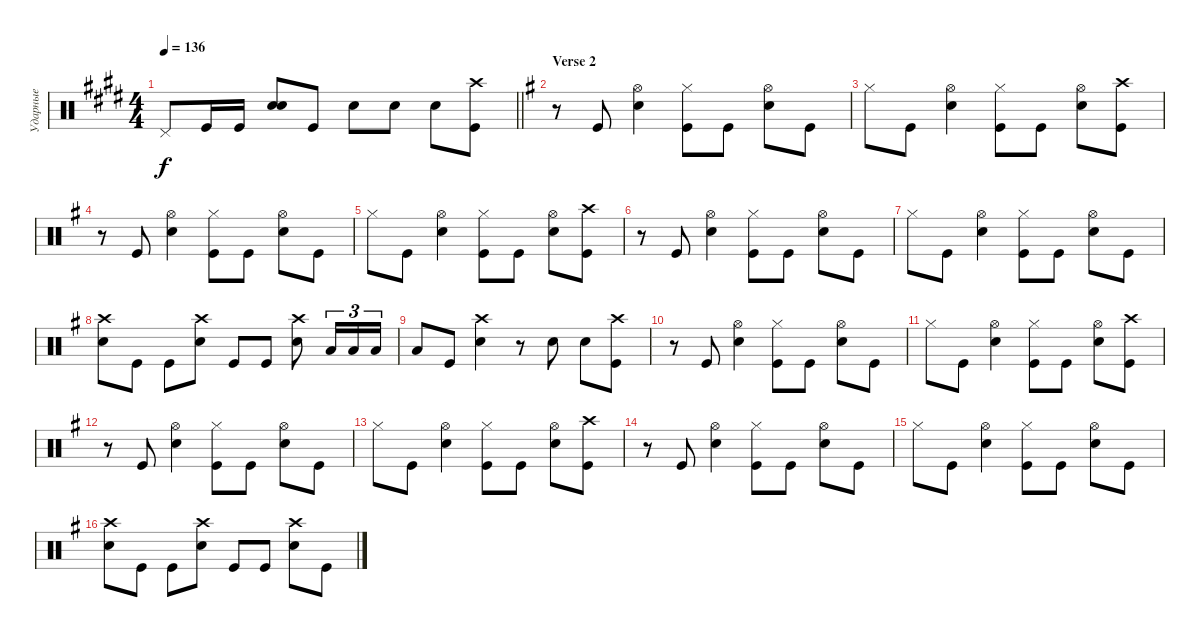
\track ("Ударные" "Ударные") {instrument percussion}
\staff {score}
\articulation defaults
\ts (4 4)
\tempo 136
\clef neutral
\barLineRight lightlight
\ks c#minor "Pedal Hi-Hat (hit)".8{dy f} "Kick (hit)".16 "Kick (hit)".16
("Snare (hit) 2" "Snare (hit) 2").8{bd 240} "Kick (hit)".8 "Snare (hit) 2".8{bd 240} "Snare (hit) 2".8 "Snare (hit) 2".8 ("Kick (hit)" "Crash high (hit)").8 |
\section ("" "Verse 2")
\ks eminor
r.8 "Kick (hit)".8 ("Snare (hit) 2" "Hi-Hat (open)").4 ("Kick (hit)" "Hi-Hat (closed)").8 "Kick (hit)".8 ("Snare (hit) 2" "Hi-Hat (open)").8 "Kick (hit)".8 |
"Hi-Hat (closed)".8 "Kick (hit)".8 ("Snare (hit) 2" "Hi-Hat (open)").4 ("Kick (hit)" "Hi-Hat (closed)").8 "Kick (hit)".8 ("Snare (hit) 2" "Hi-Hat (open)").8 ("Kick (hit)" "Crash high (hit)").8 |
r.8 "Kick (hit)".8 ("Snare (hit) 2" "Hi-Hat (open)").4 ("Kick (hit)" "Hi-Hat (closed)").8 "Kick (hit)".8 ("Snare (hit) 2" "Hi-Hat (open)").8 "Kick (hit)".8 |
"Hi-Hat (closed)".8 "Kick (hit)".8 ("Snare (hit) 2" "Hi-Hat (open)").4 ("Kick (hit)" "Hi-Hat (closed)").8 "Kick (hit)".8 ("Snare (hit) 2" "Hi-Hat (open)").8 ("Kick (hit)" "Crash high (hit)").8 |
r.8 "Kick (hit)".8 ("Snare (hit) 2" "Hi-Hat (open)").4 ("Kick (hit)" "Hi-Hat (closed)").8 "Kick (hit)".8 ("Snare (hit) 2" "Hi-Hat (open)").8 "Kick (hit)".8 |
"Hi-Hat (closed)".8 "Kick (hit)".8 ("Snare (hit) 2" "Hi-Hat (open)").4 ("Kick (hit)" "Hi-Hat (closed)").8 "Kick (hit)".8 ("Snare (hit) 2" "Hi-Hat (open)").8 "Kick (hit)".8 |
("Snare (hit) 2" "Crash high (hit)").8 "Kick (hit)".8 "Kick (hit)".8 ("Snare (hit) 2" "Crash high (hit)").8 "Kick (hit)".8 "Kick (hit)".8 ("Snare (hit) 2" "Crash high (hit)").8 "Low Tom (hit)".16{tu (3 2)} "Low Tom (hit)".16{tu (3 2)} "Low Tom (hit)".16{tu (3 2)} |
"Low Tom (hit)".8 "Kick (hit)".8 ("Snare (hit) 2" "Crash high (hit)").4 r.8 "Snare (hit) 2".8 "Snare (hit) 2".8 ("Kick (hit)" "Crash high (hit)").8 |
r.8 "Kick (hit)".8 ("Snare (hit) 2" "Hi-Hat (open)").4 ("Kick (hit)" "Hi-Hat (closed)").8 "Kick (hit)".8 ("Snare (hit) 2" "Hi-Hat (open)").8 "Kick (hit)".8 |
"Hi-Hat (closed)".8 "Kick (hit)".8 ("Snare (hit) 2" "Hi-Hat (open)").4 ("Kick (hit)" "Hi-Hat (closed)").8 "Kick (hit)".8 ("Snare (hit) 2" "Hi-Hat (open)").8 ("Kick (hit)" "Crash high (hit)").8 |
r.8 "Kick (hit)".8 ("Snare (hit) 2" "Hi-Hat (open)").4 ("Kick (hit)" "Hi-Hat (closed)").8 "Kick (hit)".8 ("Snare (hit) 2" "Hi-Hat (open)").8 "Kick (hit)".8 |
"Hi-Hat (closed)".8 "Kick (hit)".8 ("Snare (hit) 2" "Hi-Hat (open)").4 ("Kick (hit)" "Hi-Hat (closed)").8 "Kick (hit)".8 ("Snare (hit) 2" "Hi-Hat (open)").8 ("Kick (hit)" "Crash high (hit)").8 |
r.8 "Kick (hit)".8 ("Snare (hit) 2" "Hi-Hat (open)").4 ("Kick (hit)" "Hi-Hat (closed)").8 "Kick (hit)".8 ("Snare (hit) 2" "Hi-Hat (open)").8 "Kick (hit)".8 |
"Hi-Hat (closed)".8 "Kick (hit)".8 ("Snare (hit) 2" "Hi-Hat (open)").4 ("Kick (hit)" "Hi-Hat (closed)").8 "Kick (hit)".8 ("Snare (hit) 2" "Hi-Hat (open)").8 "Kick (hit)".8 |
("Snare (hit) 2" "Crash high (hit)").8 "Kick (hit)".8 "Kick (hit)".8 ("Snare (hit) 2" "Crash high (hit)").8 "Kick (hit)".8 "Kick (hit)".8 ("Snare (hit) 2" "Crash high (hit)").8 "Kick (hit)".8
